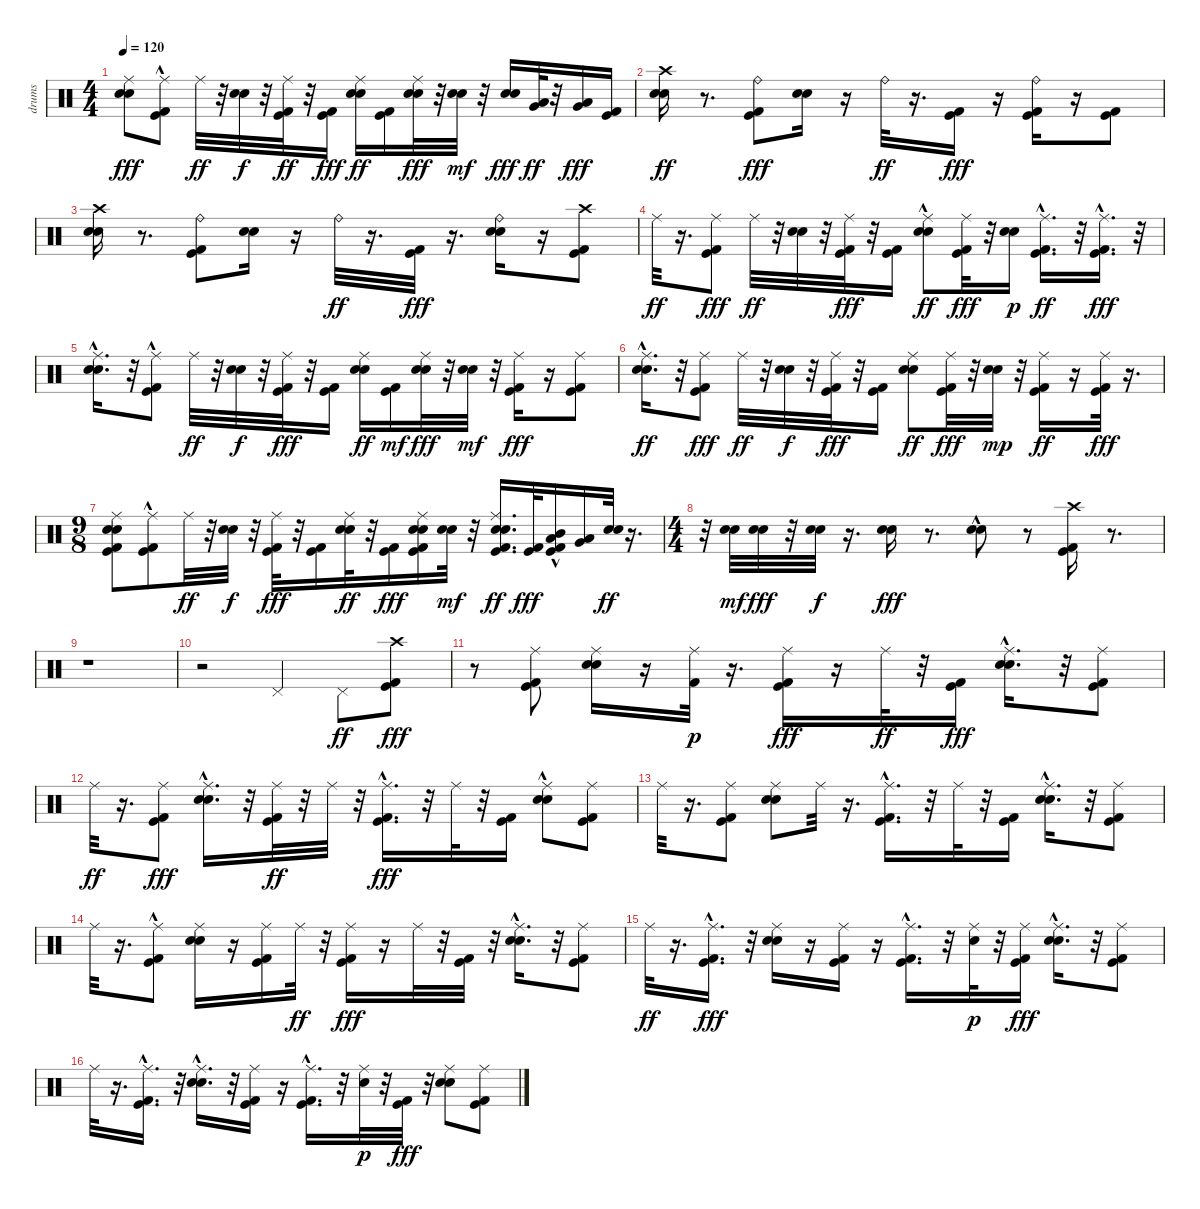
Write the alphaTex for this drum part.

\track ("drums" "drums") {instrument percussion}
\staff {score}
\articulation defaults
\ts (4 4)
\tempo 120
\clef neutral
\ks c
("Snare (hit) 2" "Electric Snare (hit)" "Ride (middle)").8{dy fff} ("Kick (hit) 2"{hac} "Kick (hit)"{hac} "Ride (middle)").8 "Ride (middle)".32{dy ff} r.32 ("Snare (hit) 2" "Electric Snare (hit)").32{dy f} r.32 ("Kick (hit)" "Kick (hit) 2" "Ride (middle)").32{dy ff} r.32 ("Kick (hit) 2" "Kick (hit)").16{dy fff} ("Electric Snare (hit)" "Snare (hit) 2" "Ride (middle)").16{dy ff} ("Kick (hit) 2" "Kick (hit)").16 ("Snare (hit) 2" "Electric Snare (hit)" "Ride (middle)").32{dy fff} r.32 ("Snare (hit) 2" "Electric Snare (hit)").32{dy mf} r.32 ("Snare (hit) 2" "Electric Snare (hit)").16{dy fff} ("Very Low Tom (hit)" "Low Tom (hit)").32{dy ff} r.32 ("Very Low Tom (hit)" "Low Floor Tom (hit)").16{dy fff} ("Kick (hit)" "Kick (hit) 2").16 |
("Electric Snare (hit)" "Crash high (hit)" "Snare (hit) 2").16{dy ff} r.8{d} ("Ride (bell)" "Kick (hit) 2" "Kick (hit)").8{dy fff} ("Electric Snare (hit)" "Snare (hit) 2").16 r.16 "Ride (bell)".32{dy ff} r.16{d} ("Kick (hit) 2" "Kick (hit)").16{dy fff} r.16 ("Ride (bell)" "Kick (hit) 2" "Kick (hit)").16 r.16 ("Kick (hit) 2" "Kick (hit)").8 |
("Crash high (hit)" "Electric Snare (hit)" "Snare (hit) 2").16 r.8{d} ("Ride (bell)" "Kick (hit) 2" "Kick (hit)").8 ("Electric Snare (hit)" "Snare (hit) 2").16 r.16 "Ride (bell)".32{dy ff} r.16{d} ("Kick (hit)" "Kick (hit) 2").32{dy fff} r.16{d} ("Ride (bell)" "Snare (hit) 2" "Electric Snare (hit)").16 r.16 ("Kick (hit) 2" "Kick (hit)" "Crash high (hit)").8 |
"Ride (middle)".32{dy ff} r.16{d} ("Kick (hit) 2" "Kick (hit)" "Ride (middle)").8{dy fff} "Ride (middle)".32{dy ff} r.32 ("Snare (hit) 2" "Electric Snare (hit)").32 r.32 ("Kick (hit) 2" "Kick (hit)" "Ride (middle)").32{dy fff} r.32 ("Kick (hit) 2" "Kick (hit)").16 ("Electric Snare (hit)" "Snare (hit) 2"{hac} "Ride (middle)").8{dy ff} ("Kick (hit) 2" "Kick (hit)" "Ride (middle)").32{dy fff} r.32 ("Snare (hit) 2" "Electric Snare (hit)").16{dy p} ("Kick (hit) 2"{hac} "Kick (hit)"{hac} "Ride (middle)").16{d dy ff} r.32 ("Kick (hit) 2"{hac} "Kick (hit)"{hac} "Ride (middle)").16{d dy fff} r.32 |
("Snare (hit) 2"{hac} "Electric Snare (hit)"{hac} "Ride (middle)").16{d} r.32 ("Kick (hit)"{hac} "Kick (hit) 2"{hac} "Ride (middle)").8 "Ride (middle)".32{dy ff} r.32 ("Snare (hit) 2" "Electric Snare (hit)").32{dy f} r.32 ("Kick (hit)" "Kick (hit) 2" "Ride (middle)").32{dy fff} r.32 ("Kick (hit) 2" "Kick (hit)").16 ("Electric Snare (hit)" "Snare (hit) 2" "Ride (middle)").16{dy ff} ("Kick (hit) 2" "Kick (hit)").16{dy mf} ("Snare (hit) 2" "Electric Snare (hit)" "Ride (middle)").32{dy fff} r.32 ("Snare (hit) 2" "Electric Snare (hit)").32{dy mf} r.32 ("Ride (middle)" "Kick (hit) 2" "Kick (hit)").16{dy fff} r.16 ("Kick (hit) 2" "Kick (hit)" "Ride (middle)").8 |
("Snare (hit) 2"{hac} "Electric Snare (hit)"{hac} "Ride (middle)").16{d dy ff} r.32 ("Kick (hit)" "Kick (hit) 2" "Ride (middle)").8{dy fff} "Ride (middle)".32{dy ff} r.32 ("Snare (hit) 2" "Electric Snare (hit)").32{dy f} r.32 ("Kick (hit) 2" "Kick (hit)" "Ride (middle)").32{dy fff} r.32 ("Kick (hit) 2" "Kick (hit)").16 ("Snare (hit) 2" "Electric Snare (hit)" "Ride (middle)").8{dy ff} ("Kick (hit) 2" "Kick (hit)" "Ride (middle)").32{dy fff} r.32 ("Snare (hit) 2" "Electric Snare (hit)").32{dy mp} r.32 ("Kick (hit) 2" "Kick (hit)" "Ride (middle)").16{dy ff} r.16 ("Kick (hit)" "Kick (hit) 2" "Ride (middle)").32{dy fff} r.16{d} |
\ts (9 8)
("Kick (hit) 2" "Kick (hit)" "Snare (hit) 2" "Electric Snare (hit)" "Ride (middle)").8 ("Kick (hit) 2"{hac} "Kick (hit)"{hac} "Ride (middle)").8 "Ride (middle)".32{dy ff} r.32 ("Snare (hit) 2" "Electric Snare (hit)").32{dy f} r.32 ("Kick (hit) 2" "Kick (hit)" "Ride (middle)").32{dy fff} r.32 ("Kick (hit)" "Kick (hit) 2").16 ("Snare (hit) 2" "Electric Snare (hit)" "Ride (middle)").32{dy ff} r.32 ("Kick (hit) 2" "Kick (hit)").16{dy fff} ("Kick (hit)" "Kick (hit) 2" "Electric Snare (hit)" "Snare (hit) 2" "Ride (middle)").16 ("Snare (hit) 2" "Electric Snare (hit)").32{dy mf} r.32 ("Electric Snare (hit)" "Snare (hit) 2" "Kick (hit)" "Kick (hit) 2" "Ride (middle)").16{d dy ff} ("Kick (hit)" "Kick (hit) 2").32{dy fff} ("Mid Tom (hit)" "Low Tom (hit)" "Kick (hit) 2"{hac} "Kick (hit)").16 ("Low Floor Tom (hit)" "Very Low Tom (hit)").16 ("Electric Snare (hit)" "Snare (hit) 2").32{dy ff} r.16{d} |
\ts (4 4)
r.32 ("Electric Snare (hit)" "Snare (hit) 2").32{dy mf} ("Snare (hit) 2" "Electric Snare (hit)").32{dy fff} r.32 ("Snare (hit) 2" "Electric Snare (hit)").32{dy f} r.16{d} ("Snare (hit) 2" "Electric Snare (hit)").16{dy fff} r.8{d} ("Electric Snare (hit)" "Snare (hit) 2"{hac}).8 r.8 ("Crash high (hit)" "Kick (hit) 2" "Kick (hit)").16 r.8{d} |
r.1 |
r.2 "Pedal Hi-Hat (hit)".4 "Pedal Hi-Hat (hit)".8{dy ff} ("Crash high (hit)" "Kick (hit) 2" "Kick (hit)").8{dy fff} |
r.8 ("Ride (middle)" "Kick (hit)" "Kick (hit) 2").8 ("Ride (middle)" "Snare (hit) 2" "Electric Snare (hit)").16 r.16 ("Ride (middle)" "Kick (hit) 2").32{dy p} r.16{d} ("Ride (middle)" "Kick (hit) 2" "Kick (hit)").16{dy fff} r.16 "Ride (middle)".32{dy ff} r.32 ("Kick (hit) 2" "Kick (hit)").16{dy fff} ("Ride (middle)" "Snare (hit) 2"{hac} "Electric Snare (hit)"{hac}).16{d} r.32 ("Ride (middle)" "Kick (hit) 2" "Kick (hit)").8 |
"Ride (middle)".32{dy ff} r.16{d} ("Ride (middle)" "Kick (hit)" "Kick (hit) 2").8{dy fff} ("Ride (middle)" "Snare (hit) 2"{hac} "Electric Snare (hit)"{hac}).16{d} r.32 ("Ride (middle)" "Kick (hit) 2" "Kick (hit)").32{dy ff} r.32 "Ride (middle)".32 r.32 ("Ride (middle)" "Kick (hit) 2"{hac} "Kick (hit)"{hac}).16{d dy fff} r.32 "Ride (middle)".32 r.32 ("Kick (hit) 2" "Kick (hit)").16 ("Ride (middle)" "Snare (hit) 2"{hac} "Electric Snare (hit)").8 ("Ride (middle)" "Kick (hit) 2" "Kick (hit)").8 |
"Ride (middle)".32 r.16{d} ("Ride (middle)" "Kick (hit)" "Kick (hit) 2").8 ("Ride (middle)" "Snare (hit) 2" "Electric Snare (hit)").8 "Ride (middle)".32 r.16{d} ("Ride (middle)" "Kick (hit)"{hac} "Kick (hit) 2"{hac}).16{d} r.32 "Ride (middle)".32 r.32 ("Kick (hit) 2" "Kick (hit)").16 ("Ride (middle)" "Snare (hit) 2"{hac} "Electric Snare (hit)"{hac}).16{d} r.32 ("Ride (middle)" "Kick (hit) 2" "Kick (hit)").8 |
"Ride (middle)".32 r.16{d} ("Ride (middle)" "Kick (hit)" "Kick (hit) 2"{hac}).8 ("Ride (middle)" "Snare (hit) 2" "Electric Snare (hit)").16 r.16 ("Ride (middle)" "Kick (hit)" "Kick (hit) 2").16 "Ride (middle)".32{dy ff} r.32 ("Ride (middle)" "Kick (hit) 2" "Kick (hit)").16{dy fff} r.16 "Ride (middle)".32 r.32 ("Kick (hit) 2" "Kick (hit)").32 r.32 ("Ride (middle)" "Snare (hit) 2"{hac} "Electric Snare (hit)"{hac}).16{d} r.32 ("Ride (middle)" "Kick (hit) 2" "Kick (hit)").8 |
"Ride (middle)".32{dy ff} r.16{d} ("Ride (middle)" "Kick (hit) 2"{hac} "Kick (hit)"{hac}).16{d dy fff} r.32 ("Ride (middle)" "Snare (hit) 2" "Electric Snare (hit)").16 r.16 ("Ride (middle)" "Kick (hit) 2" "Kick (hit)").16 r.16 ("Ride (middle)" "Kick (hit) 2"{hac} "Kick (hit)"{hac}).16{d} r.32 ("Ride (middle)" "Snare (hit) 2").32{dy p} r.32 ("Ride (middle)" "Kick (hit) 2" "Kick (hit)").16{dy fff} ("Ride (middle)" "Snare (hit) 2"{hac} "Electric Snare (hit)"{hac}).16{d} r.32 ("Ride (middle)" "Kick (hit) 2" "Kick (hit)").8 |
"Ride (middle)".32 r.16{d} ("Ride (middle)" "Kick (hit) 2"{hac} "Kick (hit)"{hac}).16{d} r.32 ("Ride (middle)" "Snare (hit) 2"{hac} "Electric Snare (hit)").16{d} r.32 ("Ride (middle)" "Kick (hit) 2" "Kick (hit)").16 r.16 ("Ride (middle)" "Kick (hit) 2"{hac} "Kick (hit)"{hac}).16{d} r.32 ("Ride (middle)" "Snare (hit) 2").32{dy p} r.32 ("Kick (hit) 2" "Kick (hit)").32{dy fff} r.32 ("Ride (middle)" "Snare (hit) 2" "Electric Snare (hit)").8 ("Ride (middle)" "Kick (hit) 2" "Kick (hit)").8
